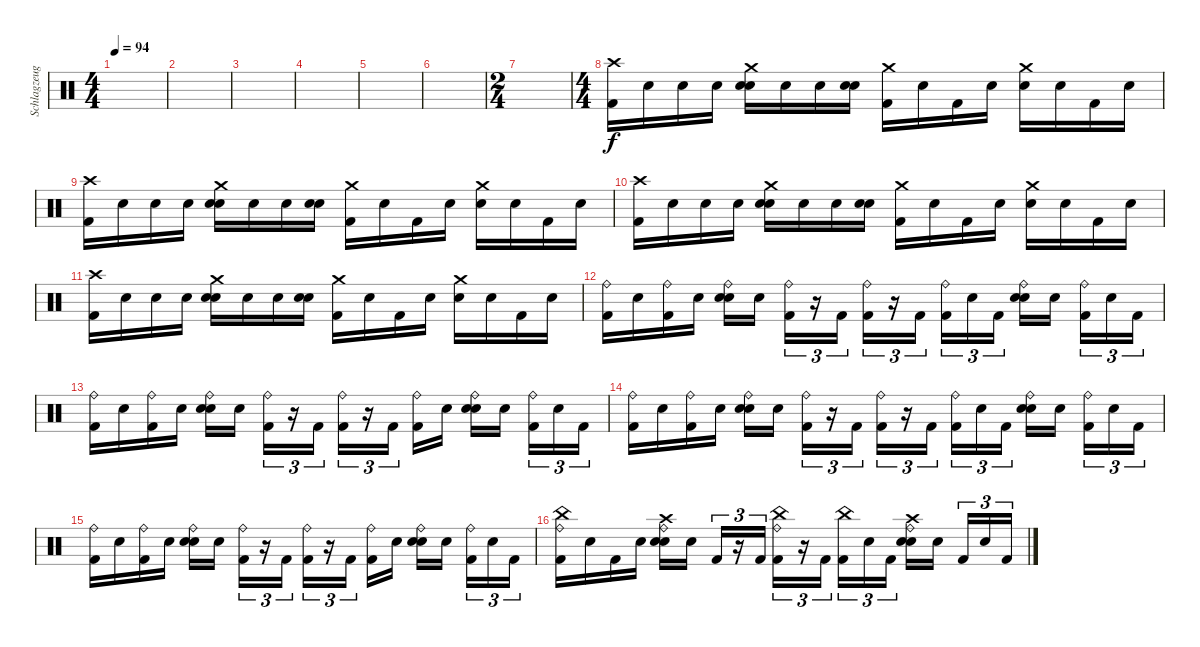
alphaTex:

\track ("Schlagzeug" "Schlagzeug") {instrument percussion}
\staff {score}
\articulation defaults
\ts (4 4)
\tempo 94
\clef neutral
\ks c
|
|
|
|
|
|
\ts (2 4)
|
\ts (4 4)
("Crash high (hit)" "Kick (hit) 2").16 "Snare (hit)"{x}.16 "Snare (hit)"{x}.16 "Snare (hit)"{x}.16 ("Crash medium (hit)" "Electric Snare (hit)" "Snare (hit)"{x}).16 "Snare (hit)"{x}.16 "Snare (hit)"{x}.16 ("Electric Snare (hit)" "Snare (hit)"{x}).16 ("Crash medium (hit)" "Kick (hit) 2").16 "Snare (hit)"{x}.16 "Kick (hit) 2".16 "Snare (hit)"{x}.16 ("Crash medium (hit)" "Electric Snare (hit)").16 "Snare (hit)"{x}.16 "Kick (hit) 2".16 "Snare (hit)"{x}.16 |
("Crash high (hit)" "Kick (hit) 2").16 "Snare (hit)"{x}.16 "Snare (hit)"{x}.16 "Snare (hit)"{x}.16 ("Crash medium (hit)" "Electric Snare (hit)" "Snare (hit)"{x}).16 "Snare (hit)"{x}.16 "Snare (hit)"{x}.16 ("Electric Snare (hit)" "Snare (hit)"{x}).16 ("Crash medium (hit)" "Kick (hit) 2").16 "Snare (hit)"{x}.16 "Kick (hit) 2".16 "Snare (hit)"{x}.16 ("Crash medium (hit)" "Electric Snare (hit)").16 "Snare (hit)"{x}.16 "Kick (hit) 2".16 "Snare (hit)"{x}.16 |
("Crash high (hit)" "Kick (hit) 2").16 "Snare (hit)"{x}.16 "Snare (hit)"{x}.16 "Snare (hit)"{x}.16 ("Crash medium (hit)" "Electric Snare (hit)" "Snare (hit)"{x}).16 "Snare (hit)"{x}.16 "Snare (hit)"{x}.16 ("Electric Snare (hit)" "Snare (hit)"{x}).16 ("Crash medium (hit)" "Kick (hit) 2").16 "Snare (hit)"{x}.16 "Kick (hit) 2".16 "Snare (hit)"{x}.16 ("Crash medium (hit)" "Electric Snare (hit)").16 "Snare (hit)"{x}.16 "Kick (hit) 2".16 "Snare (hit)"{x}.16 |
("Crash high (hit)" "Kick (hit) 2").16 "Snare (hit)"{x}.16 "Snare (hit)"{x}.16 "Snare (hit)"{x}.16 ("Crash medium (hit)" "Electric Snare (hit)" "Snare (hit)"{x}).16 "Snare (hit)"{x}.16 "Snare (hit)"{x}.16 ("Electric Snare (hit)" "Snare (hit)"{x}).16 ("Crash medium (hit)" "Kick (hit) 2").16 "Snare (hit)"{x}.16 "Kick (hit) 2".16 "Snare (hit)"{x}.16 ("Crash medium (hit)" "Electric Snare (hit)").16 "Snare (hit)"{x}.16 "Kick (hit) 2".16 "Snare (hit)"{x}.16 |
("Ride (bell)" "Kick (hit) 2").16 "Snare (hit)"{x}.16 ("Ride (bell)" "Kick (hit) 2").16 "Snare (hit)"{x}.16 ("Ride (bell)" "Electric Snare (hit)" "Snare (hit)"{x}).16 "Snare (hit)"{x}.16 ("Ride (bell)" "Kick (hit) 2").16{tu (3 2)} r.16{tu (3 2)} "Kick (hit) 2".16{tu (3 2)} ("Ride (bell)" "Kick (hit) 2").16{tu (3 2)} r.16{tu (3 2)} "Kick (hit) 2".16{tu (3 2)} ("Ride (bell)" "Kick (hit) 2").16{tu (3 2)} "Snare (hit)"{x}.16{tu (3 2)} "Kick (hit) 2".16{tu (3 2)} ("Ride (bell)" "Electric Snare (hit)" "Snare (hit)"{x}).16 "Snare (hit)"{x}.16 ("Ride (bell)" "Kick (hit) 2").16{tu (3 2)} "Snare (hit)"{x}.16{tu (3 2)} "Kick (hit) 2".16{tu (3 2)} |
("Ride (bell)" "Kick (hit) 2").16 "Snare (hit)"{x}.16 ("Ride (bell)" "Kick (hit) 2").16 "Snare (hit)"{x}.16 ("Ride (bell)" "Electric Snare (hit)" "Snare (hit)"{x}).16 "Snare (hit)"{x}.16 ("Ride (bell)" "Kick (hit) 2").16{tu (3 2)} r.16{tu (3 2)} "Kick (hit) 2".16{tu (3 2)} ("Ride (bell)" "Kick (hit) 2").16{tu (3 2)} r.16{tu (3 2)} "Kick (hit) 2".16{tu (3 2)} ("Ride (bell)" "Kick (hit) 2").16 "Snare (hit)"{x}.16 ("Ride (bell)" "Electric Snare (hit)" "Snare (hit)"{x}).16 "Snare (hit)"{x}.16 ("Ride (bell)" "Kick (hit) 2").16{tu (3 2)} "Snare (hit)"{x}.16{tu (3 2)} "Kick (hit) 2".16{tu (3 2)} |
("Ride (bell)" "Kick (hit) 2").16 "Snare (hit)"{x}.16 ("Ride (bell)" "Kick (hit) 2").16 "Snare (hit)"{x}.16 ("Ride (bell)" "Electric Snare (hit)" "Snare (hit)"{x}).16 "Snare (hit)"{x}.16 ("Ride (bell)" "Kick (hit) 2").16{tu (3 2)} r.16{tu (3 2)} "Kick (hit) 2".16{tu (3 2)} ("Ride (bell)" "Kick (hit) 2").16{tu (3 2)} r.16{tu (3 2)} "Kick (hit) 2".16{tu (3 2)} ("Ride (bell)" "Kick (hit) 2").16{tu (3 2)} "Snare (hit)"{x}.16{tu (3 2)} "Kick (hit) 2".16{tu (3 2)} ("Ride (bell)" "Electric Snare (hit)" "Snare (hit)"{x}).16 "Snare (hit)"{x}.16 ("Ride (bell)" "Kick (hit) 2").16{tu (3 2)} "Snare (hit)"{x}.16{tu (3 2)} "Kick (hit) 2".16{tu (3 2)} |
("Ride (bell)" "Kick (hit) 2").16 "Snare (hit)"{x}.16 ("Ride (bell)" "Kick (hit) 2").16 "Snare (hit)"{x}.16 ("Ride (bell)" "Electric Snare (hit)" "Snare (hit)"{x}).16 "Snare (hit)"{x}.16 ("Ride (bell)" "Kick (hit) 2").16{tu (3 2)} r.16{tu (3 2)} "Kick (hit) 2".16{tu (3 2)} ("Ride (bell)" "Kick (hit) 2").16{tu (3 2)} r.16{tu (3 2)} "Kick (hit) 2".16{tu (3 2)} ("Ride (bell)" "Kick (hit) 2").16 "Snare (hit)"{x}.16 ("Ride (bell)" "Electric Snare (hit)" "Snare (hit)"{x}).16 "Snare (hit)"{x}.16 ("Ride (bell)" "Kick (hit) 2").16{tu (3 2)} "Snare (hit)"{x}.16{tu (3 2)} "Kick (hit) 2".16{tu (3 2)} |
("China (hit)" "Ride (bell)" "Kick (hit) 2").16 "Snare (hit)"{x}.16 "Kick (hit) 2".16 "Snare (hit)"{x}.16 ("Crash high (hit)" "Ride (bell)" "Electric Snare (hit)" "Snare (hit)"{x}).16 "Snare (hit)"{x}.16 "Kick (hit) 2".16{tu (3 2)} r.16{tu (3 2)} "Kick (hit) 2".16{tu (3 2)} ("China (hit)" "Ride (bell)" "Kick (hit) 2").16{tu (3 2)} r.16{tu (3 2)} "Kick (hit) 2".16{tu (3 2)} ("China (hit)" "Kick (hit) 2").16{tu (3 2)} "Snare (hit)"{x}.16{tu (3 2)} "Kick (hit) 2".16{tu (3 2)} ("Crash high (hit)" "Ride (bell)" "Electric Snare (hit)" "Snare (hit)"{x}).16 "Snare (hit)"{x}.16 "Kick (hit) 2".16{tu (3 2)} "Snare (hit)"{x}.16{tu (3 2)} "Kick (hit) 2".16{tu (3 2)}
